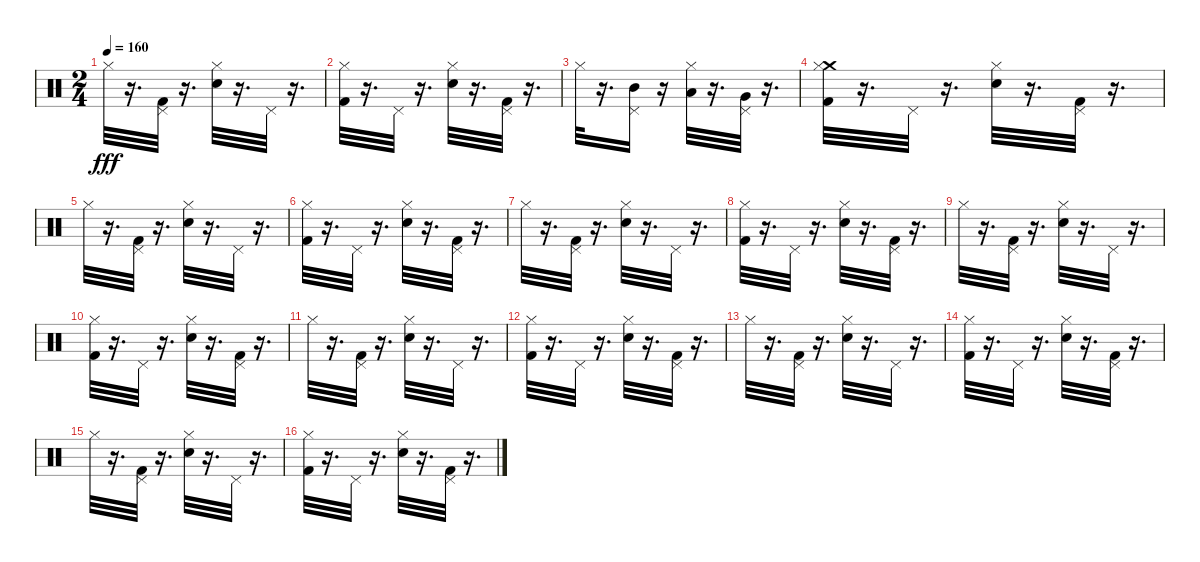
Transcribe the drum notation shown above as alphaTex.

\track "" {instrument percussion}
\staff {score}
\articulation defaults
\ts (2 4)
\tempo 160
\clef neutral
\ks c "Hi-Hat (closed)".32{dy fff}
r.16{d} ("Pedal Hi-Hat (hit)" "Kick (hit) 2").32 r.16{d} ("Hi-Hat (closed)" "Snare (hit) 2").32 r.16{d} "Pedal Hi-Hat (hit)".32 r.16{d} |
("Hi-Hat (closed)" "Kick (hit) 2").32 r.16{d} "Pedal Hi-Hat (hit)".32 r.16{d} ("Hi-Hat (closed)" "Snare (hit) 2").32 r.16{d} ("Pedal Hi-Hat (hit)" "Kick (hit) 2").32 r.16{d} |
"Hi-Hat (closed)".32 r.16{d} ("Pedal Hi-Hat (hit)" "Mid Tom (hit)").16 r.16 ("Hi-Hat (closed)" "Low Tom (hit)").32 r.16{d} ("Pedal Hi-Hat (hit)" "Very Low Tom (hit)").32 r.16{d} |
("Crash medium (hit)" "Hi-Hat (closed)" "Kick (hit) 2").32 r.16{d} "Pedal Hi-Hat (hit)".32 r.16{d} ("Hi-Hat (closed)" "Snare (hit) 2").32 r.16{d} ("Pedal Hi-Hat (hit)" "Kick (hit) 2").32 r.16{d} |
"Hi-Hat (closed)".32 r.16{d} ("Pedal Hi-Hat (hit)" "Kick (hit) 2").32 r.16{d} ("Hi-Hat (closed)" "Snare (hit) 2").32 r.16{d} "Pedal Hi-Hat (hit)".32 r.16{d} |
("Hi-Hat (closed)" "Kick (hit) 2").32 r.16{d} "Pedal Hi-Hat (hit)".32 r.16{d} ("Hi-Hat (closed)" "Snare (hit) 2").32 r.16{d} ("Pedal Hi-Hat (hit)" "Kick (hit) 2").32 r.16{d} |
"Hi-Hat (closed)".32 r.16{d} ("Pedal Hi-Hat (hit)" "Kick (hit) 2").32 r.16{d} ("Hi-Hat (closed)" "Snare (hit) 2").32 r.16{d} "Pedal Hi-Hat (hit)".32 r.16{d} |
("Hi-Hat (closed)" "Kick (hit) 2").32 r.16{d} "Pedal Hi-Hat (hit)".32 r.16{d} ("Hi-Hat (closed)" "Snare (hit) 2").32 r.16{d} ("Pedal Hi-Hat (hit)" "Kick (hit) 2").32 r.16{d} |
"Hi-Hat (closed)".32 r.16{d} ("Pedal Hi-Hat (hit)" "Kick (hit) 2").32 r.16{d} ("Hi-Hat (closed)" "Snare (hit) 2").32 r.16{d} "Pedal Hi-Hat (hit)".32 r.16{d} |
("Hi-Hat (closed)" "Kick (hit) 2").32 r.16{d} "Pedal Hi-Hat (hit)".32 r.16{d} ("Hi-Hat (closed)" "Snare (hit) 2").32 r.16{d} ("Pedal Hi-Hat (hit)" "Kick (hit) 2").32 r.16{d} |
"Hi-Hat (closed)".32 r.16{d} ("Pedal Hi-Hat (hit)" "Kick (hit) 2").32 r.16{d} ("Hi-Hat (closed)" "Snare (hit) 2").32 r.16{d} "Pedal Hi-Hat (hit)".32 r.16{d} |
("Hi-Hat (closed)" "Kick (hit) 2").32 r.16{d} "Pedal Hi-Hat (hit)".32 r.16{d} ("Hi-Hat (closed)" "Snare (hit) 2").32 r.16{d} ("Pedal Hi-Hat (hit)" "Kick (hit) 2").32 r.16{d} |
"Hi-Hat (closed)".32 r.16{d} ("Pedal Hi-Hat (hit)" "Kick (hit) 2").32 r.16{d} ("Hi-Hat (closed)" "Snare (hit) 2").32 r.16{d} "Pedal Hi-Hat (hit)".32 r.16{d} |
("Hi-Hat (closed)" "Kick (hit) 2").32 r.16{d} "Pedal Hi-Hat (hit)".32 r.16{d} ("Hi-Hat (closed)" "Snare (hit) 2").32 r.16{d} ("Pedal Hi-Hat (hit)" "Kick (hit) 2").32 r.16{d} |
"Hi-Hat (closed)".32 r.16{d} ("Pedal Hi-Hat (hit)" "Kick (hit) 2").32 r.16{d} ("Hi-Hat (closed)" "Snare (hit) 2").32 r.16{d} "Pedal Hi-Hat (hit)".32 r.16{d} |
("Hi-Hat (closed)" "Kick (hit) 2").32 r.16{d} "Pedal Hi-Hat (hit)".32 r.16{d} ("Hi-Hat (closed)" "Snare (hit) 2").32 r.16{d} ("Pedal Hi-Hat (hit)" "Kick (hit) 2").32 r.16{d}
